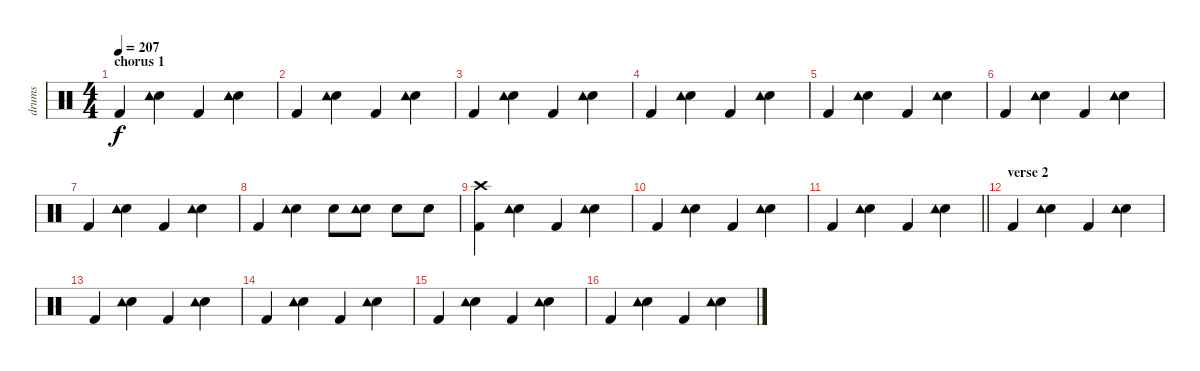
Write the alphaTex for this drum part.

\track ("drums" "drums") {instrument percussion}
\staff {score}
\articulation defaults
\ts (4 4)
\section ("" "chorus 1")
\tempo 207
\clef neutral
\ks c "Kick (hit) 2".4{dy f}
("Electric Snare (hit)" "Tambourine (hit)").4 "Kick (hit) 2".4 ("Electric Snare (hit)" "Tambourine (hit)").4 |
"Kick (hit) 2".4 ("Electric Snare (hit)" "Tambourine (hit)").4 "Kick (hit) 2".4 ("Electric Snare (hit)" "Tambourine (hit)").4 |
"Kick (hit) 2".4 ("Electric Snare (hit)" "Tambourine (hit)").4 "Kick (hit) 2".4 ("Electric Snare (hit)" "Tambourine (hit)").4 |
"Kick (hit) 2".4 ("Electric Snare (hit)" "Tambourine (hit)").4 "Kick (hit) 2".4 ("Electric Snare (hit)" "Tambourine (hit)").4 |
"Kick (hit) 2".4 ("Electric Snare (hit)" "Tambourine (hit)").4 "Kick (hit) 2".4 ("Electric Snare (hit)" "Tambourine (hit)").4 |
"Kick (hit) 2".4 ("Electric Snare (hit)" "Tambourine (hit)").4 "Kick (hit) 2".4 ("Electric Snare (hit)" "Tambourine (hit)").4 |
"Kick (hit) 2".4 ("Electric Snare (hit)" "Tambourine (hit)").4 "Kick (hit) 2".4 ("Electric Snare (hit)" "Tambourine (hit)").4 |
"Kick (hit) 2".4 ("Electric Snare (hit)" "Tambourine (hit)").4 "Electric Snare (hit)".8 ("Electric Snare (hit)" "Tambourine (hit)").8 "Electric Snare (hit)".8 "Electric Snare (hit)".8 |
("Kick (hit) 2" "Crash high (hit)").4 ("Electric Snare (hit)" "Tambourine (hit)").4 "Kick (hit) 2".4 ("Electric Snare (hit)" "Tambourine (hit)").4 |
"Kick (hit) 2".4 ("Electric Snare (hit)" "Tambourine (hit)").4 "Kick (hit) 2".4 ("Electric Snare (hit)" "Tambourine (hit)").4 |
\barLineRight lightlight "Kick (hit) 2".4
("Electric Snare (hit)" "Tambourine (hit)").4 "Kick (hit) 2".4 ("Electric Snare (hit)" "Tambourine (hit)").4 |
\section ("" "verse 2")
"Kick (hit) 2".4 ("Electric Snare (hit)" "Tambourine (hit)").4 "Kick (hit) 2".4 ("Electric Snare (hit)" "Tambourine (hit)").4 |
"Kick (hit) 2".4 ("Electric Snare (hit)" "Tambourine (hit)").4 "Kick (hit) 2".4 ("Electric Snare (hit)" "Tambourine (hit)").4 |
"Kick (hit) 2".4 ("Electric Snare (hit)" "Tambourine (hit)").4 "Kick (hit) 2".4 ("Electric Snare (hit)" "Tambourine (hit)").4 |
"Kick (hit) 2".4 ("Electric Snare (hit)" "Tambourine (hit)").4 "Kick (hit) 2".4 ("Electric Snare (hit)" "Tambourine (hit)").4 |
"Kick (hit) 2".4 ("Electric Snare (hit)" "Tambourine (hit)").4 "Kick (hit) 2".4 ("Electric Snare (hit)" "Tambourine (hit)").4
